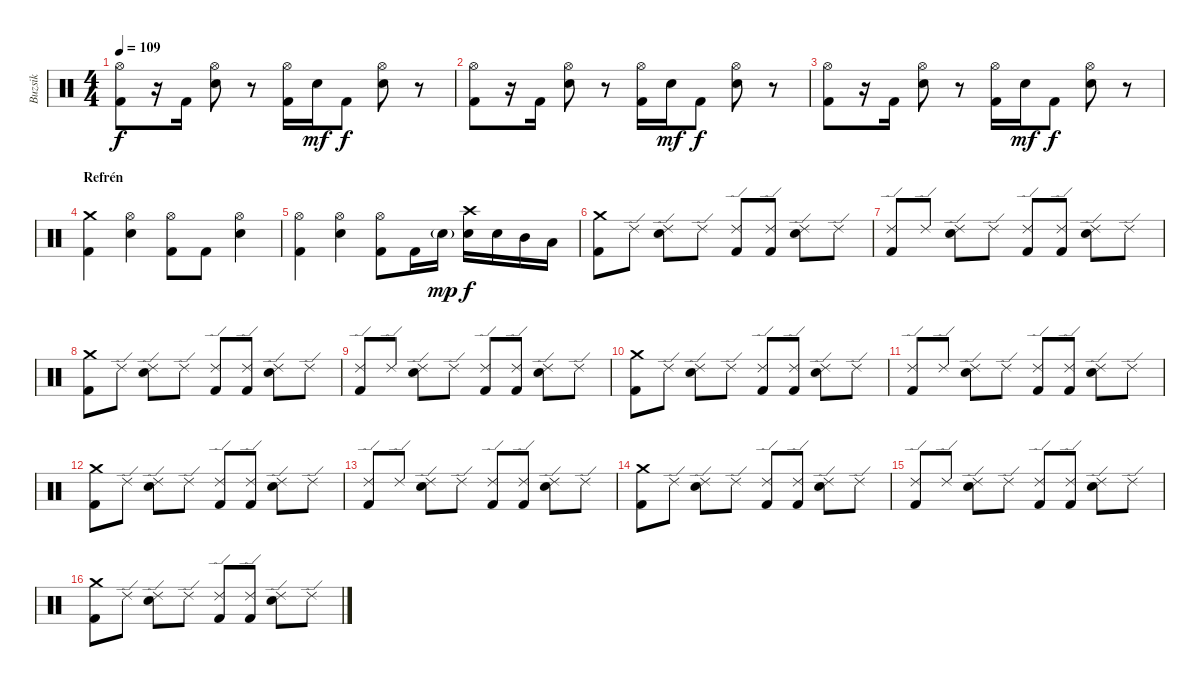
\track ("Buzsik" "Buzsik") {instrument percussion}
\staff {score}
\articulation defaults
\ts (4 4)
\tempo 109
\clef neutral
\ks c
("Hi-Hat (open)" "Kick (hit) 2").8{dy f} r.16 "Kick (hit) 2".16 ("Hi-Hat (open)" "Electric Snare (hit)").8 r.8 ("Hi-Hat (open)" "Kick (hit) 2").16 "Electric Snare (hit)".16{dy mf} "Kick (hit) 2".8{dy f} ("Hi-Hat (open)" "Electric Snare (hit)").8 r.8 |
("Hi-Hat (open)" "Kick (hit) 2").8 r.16 "Kick (hit) 2".16 ("Hi-Hat (open)" "Electric Snare (hit)").8 r.8 ("Hi-Hat (open)" "Kick (hit) 2").16 "Electric Snare (hit)".16{dy mf} "Kick (hit) 2".8{dy f} ("Hi-Hat (open)" "Electric Snare (hit)").8 r.8 |
("Hi-Hat (open)" "Kick (hit) 2").8 r.16 "Kick (hit) 2".16 ("Hi-Hat (open)" "Electric Snare (hit)").8 r.8 ("Hi-Hat (open)" "Kick (hit) 2").16 "Electric Snare (hit)".16{dy mf} "Kick (hit) 2".8{dy f} ("Hi-Hat (open)" "Electric Snare (hit)").8 r.8 |
\section ("" "Refrén")
("Crash medium (hit)" "Kick (hit) 2").4 ("Hi-Hat (open)" "Electric Snare (hit)").4 ("Hi-Hat (open)" "Kick (hit) 2").8 "Kick (hit) 2".8 ("Hi-Hat (open)" "Electric Snare (hit)").4 |
("Hi-Hat (open)" "Kick (hit) 2").4 ("Hi-Hat (open)" "Electric Snare (hit)").4 ("Hi-Hat (open)" "Kick (hit) 2").8 "Kick (hit) 2".16 "Electric Snare (hit)"{g}.16{dy mp} ("Crash high (hit)" "Electric Snare (hit)").16{dy f} "Electric Snare (hit)".16 "Mid Tom (hit)".16 "Low Tom (hit)".16 |
("Crash medium (hit)" "Kick (hit) 2").8 "Ride (edge) 2".8 ("Ride (edge) 2" "Electric Snare (hit)").8 "Ride (edge) 2".8 ("Ride (edge) 2" "Kick (hit) 2").8 ("Ride (edge) 2" "Kick (hit) 2").8 ("Ride (edge) 2" "Electric Snare (hit)").8 "Ride (edge) 2".8 |
("Ride (edge) 2" "Kick (hit) 2").8 "Ride (edge) 2".8 ("Ride (edge) 2" "Electric Snare (hit)").8 "Ride (edge) 2".8 ("Ride (edge) 2" "Kick (hit) 2").8 ("Ride (edge) 2" "Kick (hit) 2").8 ("Ride (edge) 2" "Electric Snare (hit)").8 "Ride (edge) 2".8 |
("Crash medium (hit)" "Kick (hit) 2").8 "Ride (edge) 2".8 ("Ride (edge) 2" "Electric Snare (hit)").8 "Ride (edge) 2".8 ("Ride (edge) 2" "Kick (hit) 2").8 ("Ride (edge) 2" "Kick (hit) 2").8 ("Ride (edge) 2" "Electric Snare (hit)").8 "Ride (edge) 2".8 |
("Ride (edge) 2" "Kick (hit) 2").8 "Ride (edge) 2".8 ("Ride (edge) 2" "Electric Snare (hit)").8 "Ride (edge) 2".8 ("Ride (edge) 2" "Kick (hit) 2").8 ("Ride (edge) 2" "Kick (hit) 2").8 ("Ride (edge) 2" "Electric Snare (hit)").8 "Ride (edge) 2".8 |
("Crash medium (hit)" "Kick (hit) 2").8 "Ride (edge) 2".8 ("Ride (edge) 2" "Electric Snare (hit)").8 "Ride (edge) 2".8 ("Ride (edge) 2" "Kick (hit) 2").8 ("Ride (edge) 2" "Kick (hit) 2").8 ("Ride (edge) 2" "Electric Snare (hit)").8 "Ride (edge) 2".8 |
("Ride (edge) 2" "Kick (hit) 2").8 "Ride (edge) 2".8 ("Ride (edge) 2" "Electric Snare (hit)").8 "Ride (edge) 2".8 ("Ride (edge) 2" "Kick (hit) 2").8 ("Ride (edge) 2" "Kick (hit) 2").8 ("Ride (edge) 2" "Electric Snare (hit)").8 "Ride (edge) 2".8 |
("Crash medium (hit)" "Kick (hit) 2").8 "Ride (edge) 2".8 ("Ride (edge) 2" "Electric Snare (hit)").8 "Ride (edge) 2".8 ("Ride (edge) 2" "Kick (hit) 2").8 ("Ride (edge) 2" "Kick (hit) 2").8 ("Ride (edge) 2" "Electric Snare (hit)").8 "Ride (edge) 2".8 |
("Ride (edge) 2" "Kick (hit) 2").8 "Ride (edge) 2".8 ("Ride (edge) 2" "Electric Snare (hit)").8 "Ride (edge) 2".8 ("Ride (edge) 2" "Kick (hit) 2").8 ("Ride (edge) 2" "Kick (hit) 2").8 ("Ride (edge) 2" "Electric Snare (hit)").8 "Ride (edge) 2".8 |
("Crash medium (hit)" "Kick (hit) 2").8 "Ride (edge) 2".8 ("Ride (edge) 2" "Electric Snare (hit)").8 "Ride (edge) 2".8 ("Ride (edge) 2" "Kick (hit) 2").8 ("Ride (edge) 2" "Kick (hit) 2").8 ("Ride (edge) 2" "Electric Snare (hit)").8 "Ride (edge) 2".8 |
("Ride (edge) 2" "Kick (hit) 2").8 "Ride (edge) 2".8 ("Ride (edge) 2" "Electric Snare (hit)").8 "Ride (edge) 2".8 ("Ride (edge) 2" "Kick (hit) 2").8 ("Ride (edge) 2" "Kick (hit) 2").8 ("Ride (edge) 2" "Electric Snare (hit)").8 "Ride (edge) 2".8 |
("Crash medium (hit)" "Kick (hit) 2").8 "Ride (edge) 2".8 ("Ride (edge) 2" "Electric Snare (hit)").8 "Ride (edge) 2".8 ("Ride (edge) 2" "Kick (hit) 2").8 ("Ride (edge) 2" "Kick (hit) 2").8 ("Ride (edge) 2" "Electric Snare (hit)").8 "Ride (edge) 2".8
